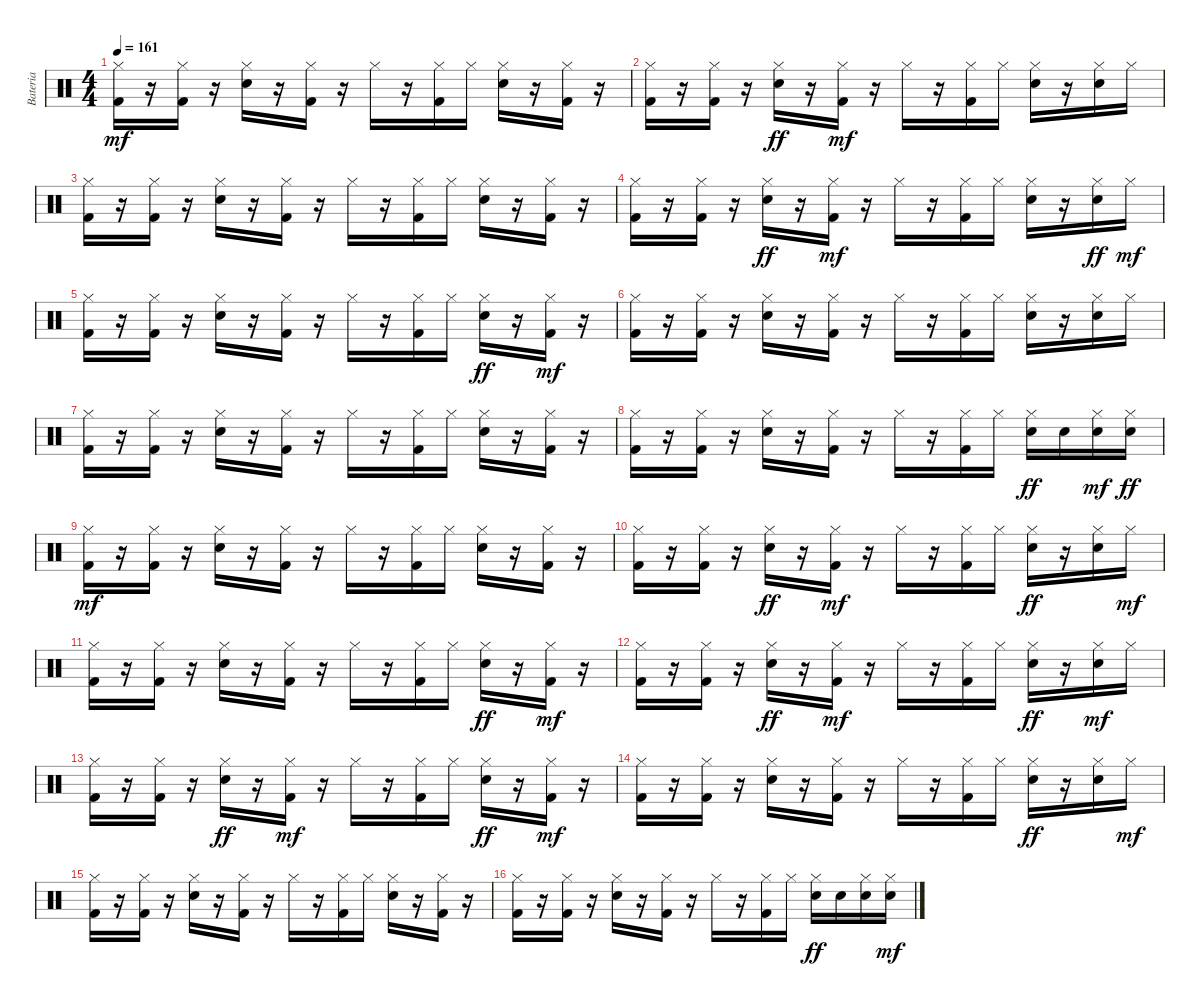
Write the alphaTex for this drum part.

\track ("Bateria" "Bateria") {instrument percussion}
\staff {score}
\articulation defaults
\ts (4 4)
\tempo 161
\clef neutral
\ks c
("Hi-Hat (closed)" "Kick (hit) 2").16{dy mf} r.16 ("Hi-Hat (closed)" "Kick (hit) 2").16 r.16 ("Electric Snare (hit)" "Hi-Hat (closed)").16 r.16 ("Hi-Hat (closed)" "Kick (hit) 2").16 r.16 "Hi-Hat (closed)".16 r.16 ("Kick (hit) 2" "Hi-Hat (closed)").16 "Hi-Hat (closed)".16 ("Electric Snare (hit)" "Hi-Hat (closed)").16 r.16 ("Hi-Hat (closed)" "Kick (hit) 2").16 r.16 |
("Hi-Hat (closed)" "Kick (hit) 2").16 r.16 ("Kick (hit) 2" "Hi-Hat (closed)").16 r.16 ("Hi-Hat (closed)" "Electric Snare (hit)").16{dy ff} r.16 ("Hi-Hat (closed)" "Kick (hit) 2").16{dy mf} r.16 "Hi-Hat (closed)".16 r.16 ("Kick (hit) 2" "Hi-Hat (closed)").16 "Hi-Hat (closed)".16 ("Electric Snare (hit)" "Hi-Hat (closed)").16 r.16 ("Electric Snare (hit)" "Hi-Hat (closed)").16 "Hi-Hat (closed)".16 |
("Hi-Hat (closed)" "Kick (hit) 2").16 r.16 ("Kick (hit) 2" "Hi-Hat (closed)").16 r.16 ("Electric Snare (hit)" "Hi-Hat (closed)").16 r.16 ("Hi-Hat (closed)" "Kick (hit) 2").16 r.16 "Hi-Hat (closed)".16 r.16 ("Hi-Hat (closed)" "Kick (hit) 2").16 "Hi-Hat (closed)".16 ("Electric Snare (hit)" "Hi-Hat (closed)").16 r.16 ("Kick (hit) 2" "Hi-Hat (closed)").16 r.16 |
("Hi-Hat (closed)" "Kick (hit) 2").16 r.16 ("Hi-Hat (closed)" "Kick (hit) 2").16 r.16 ("Hi-Hat (closed)" "Electric Snare (hit)").16{dy ff} r.16 ("Kick (hit) 2" "Hi-Hat (closed)").16{dy mf} r.16 "Hi-Hat (closed)".16 r.16 ("Kick (hit) 2" "Hi-Hat (closed)").16 "Hi-Hat (closed)".16 ("Electric Snare (hit)" "Hi-Hat (closed)").16 r.16 ("Hi-Hat (closed)" "Electric Snare (hit)").16{dy ff} "Hi-Hat (closed)".16{dy mf} |
("Kick (hit) 2" "Hi-Hat (closed)").16 r.16 ("Hi-Hat (closed)" "Kick (hit) 2").16 r.16 ("Electric Snare (hit)" "Hi-Hat (closed)").16 r.16 ("Kick (hit) 2" "Hi-Hat (closed)").16 r.16 "Hi-Hat (closed)".16 r.16 ("Kick (hit) 2" "Hi-Hat (closed)").16 "Hi-Hat (closed)".16 ("Hi-Hat (closed)" "Electric Snare (hit)").16{dy ff} r.16 ("Hi-Hat (closed)" "Kick (hit) 2").16{dy mf} r.16 |
("Kick (hit) 2" "Hi-Hat (closed)").16 r.16 ("Kick (hit) 2" "Hi-Hat (closed)").16 r.16 ("Electric Snare (hit)" "Hi-Hat (closed)").16 r.16 ("Hi-Hat (closed)" "Kick (hit) 2").16 r.16 "Hi-Hat (closed)".16 r.16 ("Kick (hit) 2" "Hi-Hat (closed)").16 "Hi-Hat (closed)".16 ("Electric Snare (hit)" "Hi-Hat (closed)").16 r.16 ("Electric Snare (hit)" "Hi-Hat (closed)").16 "Hi-Hat (closed)".16 |
("Kick (hit) 2" "Hi-Hat (closed)").16 r.16 ("Hi-Hat (closed)" "Kick (hit) 2").16 r.16 ("Electric Snare (hit)" "Hi-Hat (closed)").16 r.16 ("Hi-Hat (closed)" "Kick (hit) 2").16 r.16 "Hi-Hat (closed)".16 r.16 ("Kick (hit) 2" "Hi-Hat (closed)").16 "Hi-Hat (closed)".16 ("Electric Snare (hit)" "Hi-Hat (closed)").16 r.16 ("Hi-Hat (closed)" "Kick (hit) 2").16 r.16 |
("Hi-Hat (closed)" "Kick (hit) 2").16 r.16 ("Hi-Hat (closed)" "Kick (hit) 2").16 r.16 ("Electric Snare (hit)" "Hi-Hat (closed)").16 r.16 ("Kick (hit) 2" "Hi-Hat (closed)").16 r.16 "Hi-Hat (closed)".16 r.16 ("Kick (hit) 2" "Hi-Hat (closed)").16 "Hi-Hat (closed)".16 ("Hi-Hat (closed)" "Electric Snare (hit)").16{dy ff} "Electric Snare (hit)".16 ("Electric Snare (hit)" "Hi-Hat (closed)").16{dy mf} ("Hi-Hat (closed)" "Electric Snare (hit)").16{dy ff} |
("Kick (hit) 2" "Hi-Hat (closed)").16{dy mf} r.16 ("Hi-Hat (closed)" "Kick (hit) 2").16 r.16 ("Electric Snare (hit)" "Hi-Hat (closed)").16 r.16 ("Kick (hit) 2" "Hi-Hat (closed)").16 r.16 "Hi-Hat (closed)".16 r.16 ("Kick (hit) 2" "Hi-Hat (closed)").16 "Hi-Hat (closed)".16 ("Electric Snare (hit)" "Hi-Hat (closed)").16 r.16 ("Kick (hit) 2" "Hi-Hat (closed)").16 r.16 |
("Hi-Hat (closed)" "Kick (hit) 2").16 r.16 ("Hi-Hat (closed)" "Kick (hit) 2").16 r.16 ("Hi-Hat (closed)" "Electric Snare (hit)").16{dy ff} r.16 ("Kick (hit) 2" "Hi-Hat (closed)").16{dy mf} r.16 "Hi-Hat (closed)".16 r.16 ("Kick (hit) 2" "Hi-Hat (closed)").16 "Hi-Hat (closed)".16 ("Hi-Hat (closed)" "Electric Snare (hit)").16{dy ff} r.16 ("Hi-Hat (closed)" "Electric Snare (hit)").16 "Hi-Hat (closed)".16{dy mf} |
("Kick (hit) 2" "Hi-Hat (closed)").16 r.16 ("Hi-Hat (closed)" "Kick (hit) 2").16 r.16 ("Electric Snare (hit)" "Hi-Hat (closed)").16 r.16 ("Hi-Hat (closed)" "Kick (hit) 2").16 r.16 "Hi-Hat (closed)".16 r.16 ("Hi-Hat (closed)" "Kick (hit) 2").16 "Hi-Hat (closed)".16 ("Hi-Hat (closed)" "Electric Snare (hit)").16{dy ff} r.16 ("Hi-Hat (closed)" "Kick (hit) 2").16{dy mf} r.16 |
("Kick (hit) 2" "Hi-Hat (closed)").16 r.16 ("Kick (hit) 2" "Hi-Hat (closed)").16 r.16 ("Hi-Hat (closed)" "Electric Snare (hit)").16{dy ff} r.16 ("Kick (hit) 2" "Hi-Hat (closed)").16{dy mf} r.16 "Hi-Hat (closed)".16 r.16 ("Hi-Hat (closed)" "Kick (hit) 2").16 "Hi-Hat (closed)".16 ("Hi-Hat (closed)" "Electric Snare (hit)").16{dy ff} r.16 ("Electric Snare (hit)" "Hi-Hat (closed)").16{dy mf} "Hi-Hat (closed)".16 |
("Hi-Hat (closed)" "Kick (hit) 2").16 r.16 ("Hi-Hat (closed)" "Kick (hit) 2").16 r.16 ("Hi-Hat (closed)" "Electric Snare (hit)").16{dy ff} r.16 ("Hi-Hat (closed)" "Kick (hit) 2").16{dy mf} r.16 "Hi-Hat (closed)".16 r.16 ("Hi-Hat (closed)" "Kick (hit) 2").16 "Hi-Hat (closed)".16 ("Hi-Hat (closed)" "Electric Snare (hit)").16{dy ff} r.16 ("Kick (hit) 2" "Hi-Hat (closed)").16{dy mf} r.16 |
("Hi-Hat (closed)" "Kick (hit) 2").16 r.16 ("Hi-Hat (closed)" "Kick (hit) 2").16 r.16 ("Electric Snare (hit)" "Hi-Hat (closed)").16 r.16 ("Hi-Hat (closed)" "Kick (hit) 2").16 r.16 "Hi-Hat (closed)".16 r.16 ("Hi-Hat (closed)" "Kick (hit) 2").16 "Hi-Hat (closed)".16 ("Hi-Hat (closed)" "Electric Snare (hit)").16{dy ff} r.16 ("Hi-Hat (closed)" "Electric Snare (hit)").16 "Hi-Hat (closed)".16{dy mf} |
("Kick (hit) 2" "Hi-Hat (closed)").16 r.16 ("Hi-Hat (closed)" "Kick (hit) 2").16 r.16 ("Electric Snare (hit)" "Hi-Hat (closed)").16 r.16 ("Kick (hit) 2" "Hi-Hat (closed)").16 r.16 "Hi-Hat (closed)".16 r.16 ("Hi-Hat (closed)" "Kick (hit) 2").16 "Hi-Hat (closed)".16 ("Electric Snare (hit)" "Hi-Hat (closed)").16 r.16 ("Kick (hit) 2" "Hi-Hat (closed)").16 r.16 |
("Hi-Hat (closed)" "Kick (hit) 2").16 r.16 ("Kick (hit) 2" "Hi-Hat (closed)").16 r.16 ("Electric Snare (hit)" "Hi-Hat (closed)").16 r.16 ("Kick (hit) 2" "Hi-Hat (closed)").16 r.16 "Hi-Hat (closed)".16 r.16 ("Kick (hit) 2" "Hi-Hat (closed)").16 "Hi-Hat (closed)".16 ("Hi-Hat (closed)" "Electric Snare (hit)").16{dy ff} "Electric Snare (hit)".16 ("Hi-Hat (closed)" "Electric Snare (hit)").16 ("Electric Snare (hit)" "Hi-Hat (closed)").16{dy mf}
